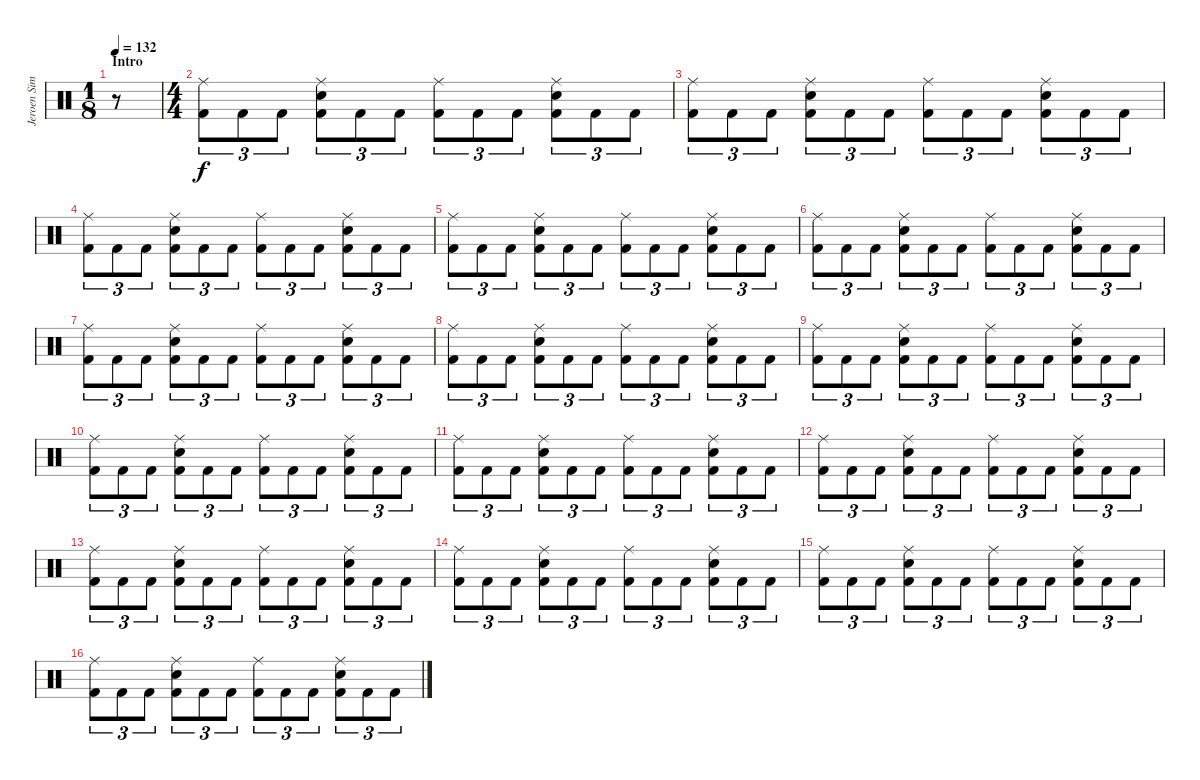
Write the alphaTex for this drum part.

\track ("Jeroen Simons" "Jeroen Sim") {instrument percussion}
\staff {score}
\articulation defaults
\ts (1 8)
\section ("" "Intro")
\tempo 132
\clef neutral
\ks c
r.8{dy f} |
\ts (4 4)
("Ride (middle)" "Kick (hit) 2").8{tu (3 2)} "Kick (hit) 2".8{tu (3 2)} "Kick (hit) 2".8{tu (3 2)} ("Ride (middle)" "Electric Snare (hit)" "Kick (hit) 2").8{tu (3 2)} "Kick (hit) 2".8{tu (3 2)} "Kick (hit) 2".8{tu (3 2)} ("Ride (middle)" "Kick (hit) 2").8{tu (3 2)} "Kick (hit) 2".8{tu (3 2)} "Kick (hit) 2".8{tu (3 2)} ("Ride (middle)" "Electric Snare (hit)" "Kick (hit) 2").8{tu (3 2)} "Kick (hit) 2".8{tu (3 2)} "Kick (hit) 2".8{tu (3 2)} |
("Ride (middle)" "Kick (hit) 2").8{tu (3 2)} "Kick (hit) 2".8{tu (3 2)} "Kick (hit) 2".8{tu (3 2)} ("Ride (middle)" "Electric Snare (hit)" "Kick (hit) 2").8{tu (3 2)} "Kick (hit) 2".8{tu (3 2)} "Kick (hit) 2".8{tu (3 2)} ("Ride (middle)" "Kick (hit) 2").8{tu (3 2)} "Kick (hit) 2".8{tu (3 2)} "Kick (hit) 2".8{tu (3 2)} ("Ride (middle)" "Electric Snare (hit)" "Kick (hit) 2").8{tu (3 2)} "Kick (hit) 2".8{tu (3 2)} "Kick (hit) 2".8{tu (3 2)} |
("Ride (middle)" "Kick (hit) 2").8{tu (3 2)} "Kick (hit) 2".8{tu (3 2)} "Kick (hit) 2".8{tu (3 2)} ("Ride (middle)" "Electric Snare (hit)" "Kick (hit) 2").8{tu (3 2)} "Kick (hit) 2".8{tu (3 2)} "Kick (hit) 2".8{tu (3 2)} ("Ride (middle)" "Kick (hit) 2").8{tu (3 2)} "Kick (hit) 2".8{tu (3 2)} "Kick (hit) 2".8{tu (3 2)} ("Ride (middle)" "Electric Snare (hit)" "Kick (hit) 2").8{tu (3 2)} "Kick (hit) 2".8{tu (3 2)} "Kick (hit) 2".8{tu (3 2)} |
("Ride (middle)" "Kick (hit) 2").8{tu (3 2)} "Kick (hit) 2".8{tu (3 2)} "Kick (hit) 2".8{tu (3 2)} ("Ride (middle)" "Electric Snare (hit)" "Kick (hit) 2").8{tu (3 2)} "Kick (hit) 2".8{tu (3 2)} "Kick (hit) 2".8{tu (3 2)} ("Ride (middle)" "Kick (hit) 2").8{tu (3 2)} "Kick (hit) 2".8{tu (3 2)} "Kick (hit) 2".8{tu (3 2)} ("Ride (middle)" "Electric Snare (hit)" "Kick (hit) 2").8{tu (3 2)} "Kick (hit) 2".8{tu (3 2)} "Kick (hit) 2".8{tu (3 2)} |
("Ride (middle)" "Kick (hit) 2").8{tu (3 2)} "Kick (hit) 2".8{tu (3 2)} "Kick (hit) 2".8{tu (3 2)} ("Ride (middle)" "Electric Snare (hit)" "Kick (hit) 2").8{tu (3 2)} "Kick (hit) 2".8{tu (3 2)} "Kick (hit) 2".8{tu (3 2)} ("Ride (middle)" "Kick (hit) 2").8{tu (3 2)} "Kick (hit) 2".8{tu (3 2)} "Kick (hit) 2".8{tu (3 2)} ("Ride (middle)" "Electric Snare (hit)" "Kick (hit) 2").8{tu (3 2)} "Kick (hit) 2".8{tu (3 2)} "Kick (hit) 2".8{tu (3 2)} |
("Ride (middle)" "Kick (hit) 2").8{tu (3 2)} "Kick (hit) 2".8{tu (3 2)} "Kick (hit) 2".8{tu (3 2)} ("Ride (middle)" "Electric Snare (hit)" "Kick (hit) 2").8{tu (3 2)} "Kick (hit) 2".8{tu (3 2)} "Kick (hit) 2".8{tu (3 2)} ("Ride (middle)" "Kick (hit) 2").8{tu (3 2)} "Kick (hit) 2".8{tu (3 2)} "Kick (hit) 2".8{tu (3 2)} ("Ride (middle)" "Electric Snare (hit)" "Kick (hit) 2").8{tu (3 2)} "Kick (hit) 2".8{tu (3 2)} "Kick (hit) 2".8{tu (3 2)} |
("Ride (middle)" "Kick (hit) 2").8{tu (3 2)} "Kick (hit) 2".8{tu (3 2)} "Kick (hit) 2".8{tu (3 2)} ("Ride (middle)" "Electric Snare (hit)" "Kick (hit) 2").8{tu (3 2)} "Kick (hit) 2".8{tu (3 2)} "Kick (hit) 2".8{tu (3 2)} ("Ride (middle)" "Kick (hit) 2").8{tu (3 2)} "Kick (hit) 2".8{tu (3 2)} "Kick (hit) 2".8{tu (3 2)} ("Ride (middle)" "Electric Snare (hit)" "Kick (hit) 2").8{tu (3 2)} "Kick (hit) 2".8{tu (3 2)} "Kick (hit) 2".8{tu (3 2)} |
("Ride (middle)" "Kick (hit) 2").8{tu (3 2)} "Kick (hit) 2".8{tu (3 2)} "Kick (hit) 2".8{tu (3 2)} ("Ride (middle)" "Electric Snare (hit)" "Kick (hit) 2").8{tu (3 2)} "Kick (hit) 2".8{tu (3 2)} "Kick (hit) 2".8{tu (3 2)} ("Ride (middle)" "Kick (hit) 2").8{tu (3 2)} "Kick (hit) 2".8{tu (3 2)} "Kick (hit) 2".8{tu (3 2)} ("Ride (middle)" "Electric Snare (hit)" "Kick (hit) 2").8{tu (3 2)} "Kick (hit) 2".8{tu (3 2)} "Kick (hit) 2".8{tu (3 2)} |
("Ride (middle)" "Kick (hit) 2").8{tu (3 2)} "Kick (hit) 2".8{tu (3 2)} "Kick (hit) 2".8{tu (3 2)} ("Ride (middle)" "Electric Snare (hit)" "Kick (hit) 2").8{tu (3 2)} "Kick (hit) 2".8{tu (3 2)} "Kick (hit) 2".8{tu (3 2)} ("Ride (middle)" "Kick (hit) 2").8{tu (3 2)} "Kick (hit) 2".8{tu (3 2)} "Kick (hit) 2".8{tu (3 2)} ("Ride (middle)" "Electric Snare (hit)" "Kick (hit) 2").8{tu (3 2)} "Kick (hit) 2".8{tu (3 2)} "Kick (hit) 2".8{tu (3 2)} |
("Ride (middle)" "Kick (hit) 2").8{tu (3 2)} "Kick (hit) 2".8{tu (3 2)} "Kick (hit) 2".8{tu (3 2)} ("Ride (middle)" "Electric Snare (hit)" "Kick (hit) 2").8{tu (3 2)} "Kick (hit) 2".8{tu (3 2)} "Kick (hit) 2".8{tu (3 2)} ("Ride (middle)" "Kick (hit) 2").8{tu (3 2)} "Kick (hit) 2".8{tu (3 2)} "Kick (hit) 2".8{tu (3 2)} ("Ride (middle)" "Electric Snare (hit)" "Kick (hit) 2").8{tu (3 2)} "Kick (hit) 2".8{tu (3 2)} "Kick (hit) 2".8{tu (3 2)} |
("Ride (middle)" "Kick (hit) 2").8{tu (3 2)} "Kick (hit) 2".8{tu (3 2)} "Kick (hit) 2".8{tu (3 2)} ("Ride (middle)" "Electric Snare (hit)" "Kick (hit) 2").8{tu (3 2)} "Kick (hit) 2".8{tu (3 2)} "Kick (hit) 2".8{tu (3 2)} ("Ride (middle)" "Kick (hit) 2").8{tu (3 2)} "Kick (hit) 2".8{tu (3 2)} "Kick (hit) 2".8{tu (3 2)} ("Ride (middle)" "Electric Snare (hit)" "Kick (hit) 2").8{tu (3 2)} "Kick (hit) 2".8{tu (3 2)} "Kick (hit) 2".8{tu (3 2)} |
("Ride (middle)" "Kick (hit) 2").8{tu (3 2)} "Kick (hit) 2".8{tu (3 2)} "Kick (hit) 2".8{tu (3 2)} ("Ride (middle)" "Electric Snare (hit)" "Kick (hit) 2").8{tu (3 2)} "Kick (hit) 2".8{tu (3 2)} "Kick (hit) 2".8{tu (3 2)} ("Ride (middle)" "Kick (hit) 2").8{tu (3 2)} "Kick (hit) 2".8{tu (3 2)} "Kick (hit) 2".8{tu (3 2)} ("Ride (middle)" "Electric Snare (hit)" "Kick (hit) 2").8{tu (3 2)} "Kick (hit) 2".8{tu (3 2)} "Kick (hit) 2".8{tu (3 2)} |
("Ride (middle)" "Kick (hit) 2").8{tu (3 2)} "Kick (hit) 2".8{tu (3 2)} "Kick (hit) 2".8{tu (3 2)} ("Ride (middle)" "Electric Snare (hit)" "Kick (hit) 2").8{tu (3 2)} "Kick (hit) 2".8{tu (3 2)} "Kick (hit) 2".8{tu (3 2)} ("Ride (middle)" "Kick (hit) 2").8{tu (3 2)} "Kick (hit) 2".8{tu (3 2)} "Kick (hit) 2".8{tu (3 2)} ("Ride (middle)" "Electric Snare (hit)" "Kick (hit) 2").8{tu (3 2)} "Kick (hit) 2".8{tu (3 2)} "Kick (hit) 2".8{tu (3 2)} |
("Ride (middle)" "Kick (hit) 2").8{tu (3 2)} "Kick (hit) 2".8{tu (3 2)} "Kick (hit) 2".8{tu (3 2)} ("Ride (middle)" "Electric Snare (hit)" "Kick (hit) 2").8{tu (3 2)} "Kick (hit) 2".8{tu (3 2)} "Kick (hit) 2".8{tu (3 2)} ("Ride (middle)" "Kick (hit) 2").8{tu (3 2)} "Kick (hit) 2".8{tu (3 2)} "Kick (hit) 2".8{tu (3 2)} ("Ride (middle)" "Electric Snare (hit)" "Kick (hit) 2").8{tu (3 2)} "Kick (hit) 2".8{tu (3 2)} "Kick (hit) 2".8{tu (3 2)} |
("Ride (middle)" "Kick (hit) 2").8{tu (3 2)} "Kick (hit) 2".8{tu (3 2)} "Kick (hit) 2".8{tu (3 2)} ("Ride (middle)" "Electric Snare (hit)" "Kick (hit) 2").8{tu (3 2)} "Kick (hit) 2".8{tu (3 2)} "Kick (hit) 2".8{tu (3 2)} ("Ride (middle)" "Kick (hit) 2").8{tu (3 2)} "Kick (hit) 2".8{tu (3 2)} "Kick (hit) 2".8{tu (3 2)} ("Ride (middle)" "Electric Snare (hit)" "Kick (hit) 2").8{tu (3 2)} "Kick (hit) 2".8{tu (3 2)} "Kick (hit) 2".8{tu (3 2)}
